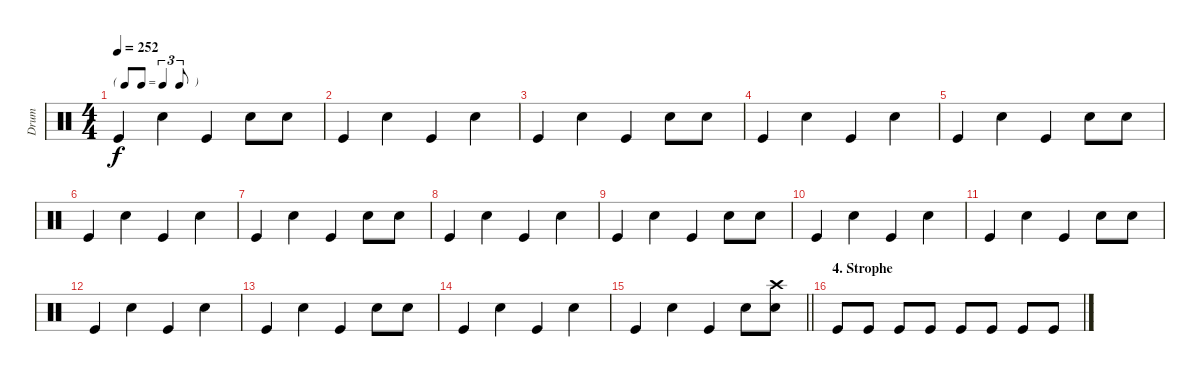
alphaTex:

\track ("Drum" "Drum") {instrument percussion}
\staff {score}
\articulation defaults
\ts (4 4)
\tf triplet8th
\tempo 252
\clef neutral
\ks c "Kick (hit)".4{dy f} "Snare (hit) 2".4 "Kick (hit)".4 "Snare (hit) 2".8 "Snare (hit) 2".8
|
"Kick (hit)".4 "Snare (hit) 2".4 "Kick (hit)".4 "Snare (hit) 2".4 |
"Kick (hit)".4 "Snare (hit) 2".4 "Kick (hit)".4 "Snare (hit) 2".8 "Snare (hit) 2".8 |
"Kick (hit)".4 "Snare (hit) 2".4 "Kick (hit)".4 "Snare (hit) 2".4 |
"Kick (hit)".4 "Snare (hit) 2".4 "Kick (hit)".4 "Snare (hit) 2".8 "Snare (hit) 2".8 |
"Kick (hit)".4 "Snare (hit) 2".4 "Kick (hit)".4 "Snare (hit) 2".4 |
"Kick (hit)".4 "Snare (hit) 2".4 "Kick (hit)".4 "Snare (hit) 2".8 "Snare (hit) 2".8 |
"Kick (hit)".4 "Snare (hit) 2".4 "Kick (hit)".4 "Snare (hit) 2".4 |
"Kick (hit)".4 "Snare (hit) 2".4 "Kick (hit)".4 "Snare (hit) 2".8 "Snare (hit) 2".8 |
"Kick (hit)".4 "Snare (hit) 2".4 "Kick (hit)".4 "Snare (hit) 2".4 |
"Kick (hit)".4 "Snare (hit) 2".4 "Kick (hit)".4 "Snare (hit) 2".8 "Snare (hit) 2".8 |
"Kick (hit)".4 "Snare (hit) 2".4 "Kick (hit)".4 "Snare (hit) 2".4 |
"Kick (hit)".4 "Snare (hit) 2".4 "Kick (hit)".4 "Snare (hit) 2".8 "Snare (hit) 2".8 |
"Kick (hit)".4 "Snare (hit) 2".4 "Kick (hit)".4 "Snare (hit) 2".4 |
\barLineRight lightlight "Kick (hit)".4 "Snare (hit) 2".4 "Kick (hit)".4 "Snare (hit) 2".8
("Snare (hit) 2" "Crash high (hit)").8 |
\section ("" "4. Strophe")
"Kick (hit)".8 "Kick (hit)".8 "Kick (hit)".8 "Kick (hit)".8 "Kick (hit)".8 "Kick (hit)".8 "Kick (hit)".8 "Kick (hit)".8
